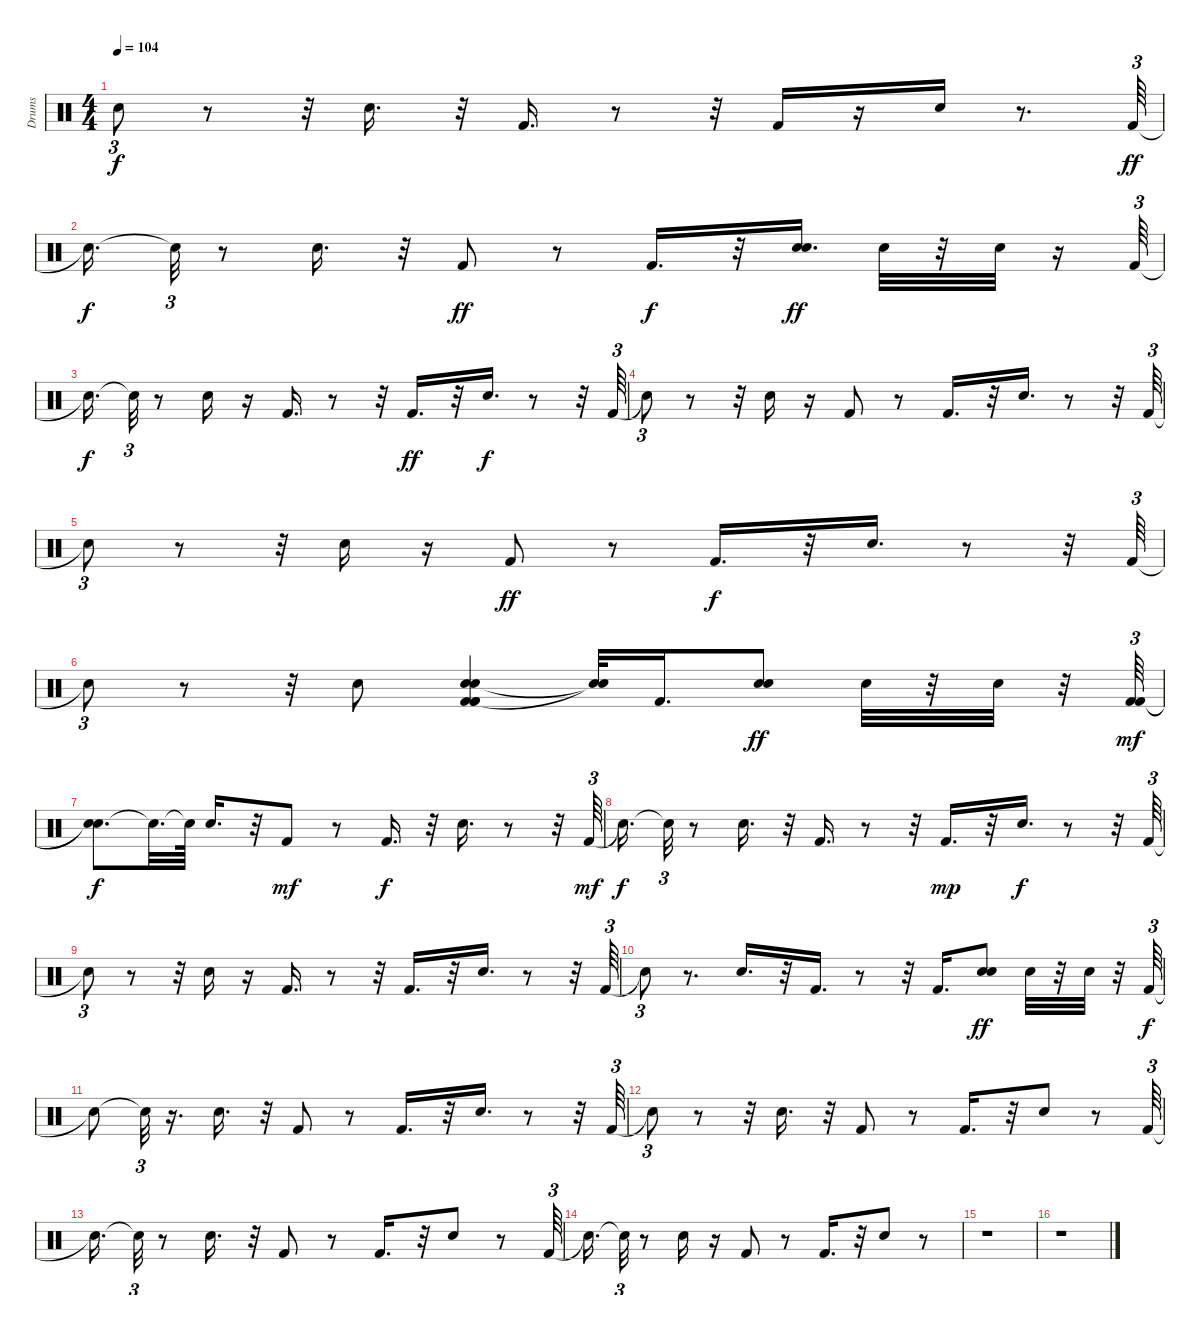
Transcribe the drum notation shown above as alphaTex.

\track ("Drums" "Drums") {instrument percussion}
\staff {score}
\articulation defaults
\ts (4 4)
\tempo 104
\clef neutral
\ks c "Snare (hit)"{t}.8{tu (3 2) dy f}
r.8 r.32 "Snare (hit) 2".16{d} r.32 "Kick (hit) 2".16{d} r.8 r.32 "Kick (hit) 2".16 r.16 "Snare (hit) 2".16 r.8{d} "Kick (hit) 2".64{tu (3 2) dy ff} |
"Snare (hit)"{t}.16{d dy f} "Snare (hit)"{t}.32{tu (3 2)} r.8 "Snare (hit) 2".16{d} r.32 "Kick (hit) 2".8{dy ff} r.8 "Kick (hit) 2".16{d dy f} r.32 ("Snare (hit) 2" "Snare (hit) 2").16{d dy ff} "Snare (hit) 2".32 r.32 "Snare (hit) 2".32 r.16 "Kick (hit) 2".64{tu (3 2)} |
"Snare (hit)"{t}.16{d dy f} "Snare (hit)"{t}.32{tu (3 2)} r.8 "Snare (hit) 2".16 r.16 "Kick (hit) 2".16{d} r.8 r.32 "Kick (hit) 2".16{d dy ff} r.32 "Snare (hit) 2".16{d dy f} r.8 r.32 "Kick (hit) 2".64{tu (3 2)} |
"Snare (hit)"{t}.8{tu (3 2)} r.8 r.32 "Snare (hit) 2".16 r.16 "Kick (hit) 2".8 r.8 "Kick (hit) 2".16{d} r.32 "Snare (hit) 2".16{d} r.8 r.32 "Kick (hit) 2".64{tu (3 2)} |
"Snare (hit)"{t}.8{tu (3 2)} r.8 r.32 "Snare (hit) 2".16 r.16 "Kick (hit) 2".8{dy ff} r.8 "Kick (hit) 2".16{d dy f} r.32 "Snare (hit) 2".16{d} r.8 r.32 "Kick (hit) 2".64{tu (3 2)} |
"Snare (hit)"{t}.8{tu (3 2)} r.8 r.32 "Snare (hit) 2".8 ("Kick (hit) 2" "Snare (hit) 2" "Kick (hit) 2" "Snare (hit) 2" "Kick (hit) 2").4 ("Snare (hit)"{t} "Snare (hit)"{t}).32 "Kick (hit) 2".16{d} ("Snare (hit) 2" "Snare (hit) 2").8{dy ff} "Snare (hit) 2".32 r.32 "Snare (hit) 2".32 r.32 ("Kick (hit) 2" "Kick (hit) 2").64{tu (3 2) dy mf} |
("Snare (hit)"{t} "Snare (hit)"{t}).8{d dy f} "Snare (hit)"{t}.32{d} "Snare (hit)"{t}.64 "Snare (hit) 2".16{d} r.32 "Kick (hit) 2".8{dy mf} r.8 "Kick (hit) 2".16{d dy f} r.32 "Snare (hit) 2".16{d} r.8 r.32 "Kick (hit) 2".64{tu (3 2) dy mf} |
"Snare (hit)"{t}.16{d dy f} "Snare (hit)"{t}.32{tu (3 2)} r.8 "Snare (hit) 2".16{d} r.32 "Kick (hit) 2".16{d} r.8 r.32 "Kick (hit) 2".16{d dy mp} r.32 "Snare (hit) 2".16{d dy f} r.8 r.32 "Kick (hit) 2".64{tu (3 2)} |
"Snare (hit)"{t}.8{tu (3 2)} r.8 r.32 "Snare (hit) 2".16 r.16 "Kick (hit) 2".16{d} r.8 r.32 "Kick (hit) 2".16{d} r.32 "Snare (hit) 2".16{d} r.8 r.32 "Kick (hit) 2".64{tu (3 2)} |
"Snare (hit)"{t}.8{tu (3 2)} r.8{d} "Snare (hit) 2".16{d} r.32 "Kick (hit) 2".16{d} r.8 r.32 "Kick (hit) 2".16{d} ("Snare (hit) 2" "Snare (hit) 2").8{dy ff} "Snare (hit) 2".32 r.32 "Snare (hit) 2".32 r.32 "Kick (hit) 2".64{tu (3 2) dy f} |
"Snare (hit)"{t}.8 "Snare (hit)"{t}.32{tu (3 2)} r.16{d} "Snare (hit) 2".16{d} r.32 "Kick (hit) 2".8 r.8 "Kick (hit) 2".16{d} r.32 "Snare (hit) 2".16{d} r.8 r.32 "Kick (hit) 2".64{tu (3 2)} |
"Snare (hit)"{t}.8{tu (3 2)} r.8 r.32 "Snare (hit) 2".16{d} r.32 "Kick (hit) 2".8 r.8 "Kick (hit) 2".16{d} r.32 "Snare (hit) 2".8 r.8 "Kick (hit) 2".64{tu (3 2)} |
"Snare (hit)"{t}.16{d} "Snare (hit)"{t}.32{tu (3 2)} r.8 "Snare (hit) 2".16{d} r.32 "Kick (hit) 2".8 r.8 "Kick (hit) 2".16{d} r.32 "Snare (hit) 2".8 r.8 "Kick (hit) 2".64{tu (3 2)} |
"Snare (hit)"{t}.16{d} "Snare (hit)"{t}.32{tu (3 2)} r.8 "Snare (hit) 2".16 r.16 "Kick (hit) 2".8 r.8 "Kick (hit) 2".16{d} r.32 "Snare (hit) 2".8 r.8 |
r.1 |
r.1
